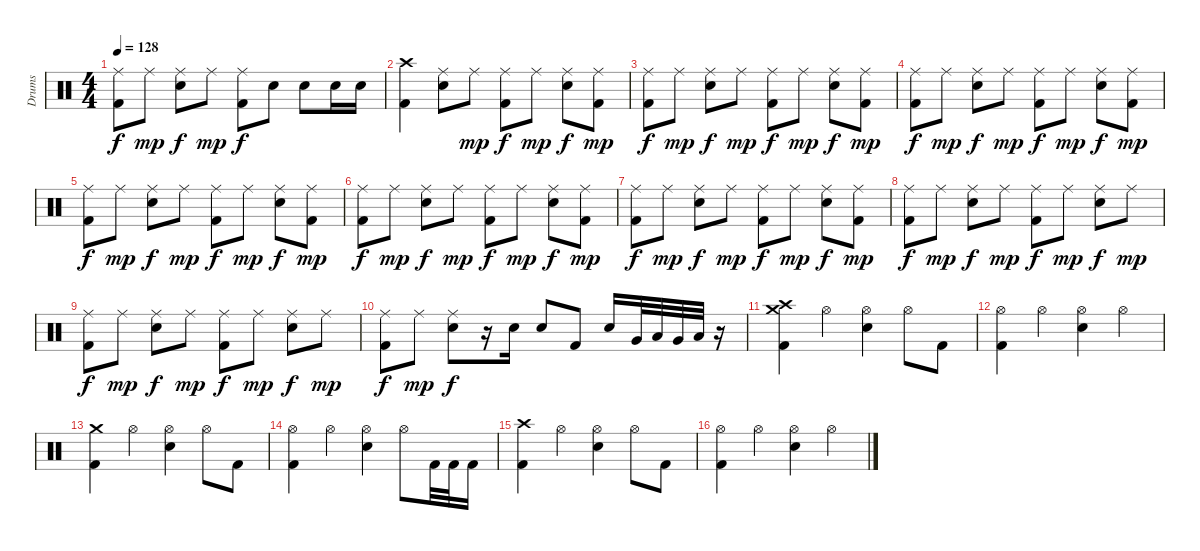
\track ("Drums" "Drums") {instrument percussion}
\staff {score}
\articulation defaults
\ts (4 4)
\tempo 128
\clef neutral
\ks c
("Ride (middle)" "Kick (hit) 2").8{dy f} "Ride (middle)".8{dy mp} ("Ride (middle)" "Snare (hit) 2").8{dy f} "Ride (middle)".8{dy mp} ("Ride (middle)" "Kick (hit) 2").8{dy f} "Snare (hit) 2".8 "Snare (hit) 2".8 "Snare (hit) 2".16 "Snare (hit) 2".16 |
("Crash high (hit)" "Kick (hit) 2").4 ("Ride (middle)" "Snare (hit) 2").8 "Ride (middle)".8{dy mp} ("Ride (middle)" "Kick (hit) 2").8{dy f} "Ride (middle)".8{dy mp} ("Ride (middle)" "Snare (hit) 2").8{dy f} ("Ride (middle)" "Kick (hit) 2").8{dy mp} |
("Ride (middle)" "Kick (hit) 2").8{dy f} "Ride (middle)".8{dy mp} ("Ride (middle)" "Snare (hit) 2").8{dy f} "Ride (middle)".8{dy mp} ("Ride (middle)" "Kick (hit) 2").8{dy f} "Ride (middle)".8{dy mp} ("Ride (middle)" "Snare (hit) 2").8{dy f} ("Ride (middle)" "Kick (hit) 2").8{dy mp} |
("Ride (middle)" "Kick (hit) 2").8{dy f} "Ride (middle)".8{dy mp} ("Ride (middle)" "Snare (hit) 2").8{dy f} "Ride (middle)".8{dy mp} ("Ride (middle)" "Kick (hit) 2").8{dy f} "Ride (middle)".8{dy mp} ("Ride (middle)" "Snare (hit) 2").8{dy f} ("Ride (middle)" "Kick (hit) 2").8{dy mp} |
("Ride (middle)" "Kick (hit) 2").8{dy f} "Ride (middle)".8{dy mp} ("Ride (middle)" "Snare (hit) 2").8{dy f} "Ride (middle)".8{dy mp} ("Ride (middle)" "Kick (hit) 2").8{dy f} "Ride (middle)".8{dy mp} ("Ride (middle)" "Snare (hit) 2").8{dy f} ("Ride (middle)" "Kick (hit) 2").8{dy mp} |
("Ride (middle)" "Kick (hit) 2").8{dy f} "Ride (middle)".8{dy mp} ("Ride (middle)" "Snare (hit) 2").8{dy f} "Ride (middle)".8{dy mp} ("Ride (middle)" "Kick (hit) 2").8{dy f} "Ride (middle)".8{dy mp} ("Ride (middle)" "Snare (hit) 2").8{dy f} ("Ride (middle)" "Kick (hit) 2").8{dy mp} |
("Ride (middle)" "Kick (hit) 2").8{dy f} "Ride (middle)".8{dy mp} ("Ride (middle)" "Snare (hit) 2").8{dy f} "Ride (middle)".8{dy mp} ("Ride (middle)" "Kick (hit) 2").8{dy f} "Ride (middle)".8{dy mp} ("Ride (middle)" "Snare (hit) 2").8{dy f} ("Ride (middle)" "Kick (hit) 2").8{dy mp} |
("Ride (middle)" "Kick (hit) 2").8{dy f} "Ride (middle)".8{dy mp} ("Ride (middle)" "Snare (hit) 2").8{dy f} "Ride (middle)".8{dy mp} ("Ride (middle)" "Kick (hit) 2").8{dy f} "Ride (middle)".8{dy mp} ("Ride (middle)" "Snare (hit) 2").8{dy f} "Ride (middle)".8{dy mp} |
("Ride (middle)" "Kick (hit) 2").8{dy f} "Ride (middle)".8{dy mp} ("Ride (middle)" "Snare (hit) 2").8{dy f} "Ride (middle)".8{dy mp} ("Ride (middle)" "Kick (hit) 2").8{dy f} "Ride (middle)".8{dy mp} ("Ride (middle)" "Snare (hit) 2").8{dy f} "Ride (middle)".8{dy mp} |
("Ride (middle)" "Kick (hit) 2").8{dy f} "Ride (middle)".8{dy mp} ("Ride (middle)" "Snare (hit) 2").8{dy f} r.16 "Snare (hit) 2".16 "Snare (hit) 2".8 "Kick (hit) 2".8 "Snare (hit) 2".16 "Very Low Tom (hit)".32 "Low Floor Tom (hit)".32 "Very Low Tom (hit)".32 "Low Floor Tom (hit)".32 r.16 |
("Crash high (hit)" "Crash medium (hit)" "Kick (hit) 2").4 "Hi-Hat (open)".4 ("Hi-Hat (open)" "Snare (hit) 2").4 "Hi-Hat (open)".8 "Kick (hit) 2".8 |
("Hi-Hat (open)" "Kick (hit) 2").4 "Hi-Hat (open)".4 ("Hi-Hat (open)" "Snare (hit) 2").4 "Hi-Hat (open)".4 |
("Crash medium (hit)" "Kick (hit) 2").4 "Hi-Hat (open)".4 ("Hi-Hat (open)" "Snare (hit) 2").4 "Hi-Hat (open)".8 "Kick (hit) 2".8 |
("Hi-Hat (open)" "Kick (hit) 2").4 "Hi-Hat (open)".4 ("Hi-Hat (open)" "Snare (hit) 2").4 "Hi-Hat (open)".8 "Kick (hit) 2".32 "Kick (hit) 2".32 "Kick (hit) 2".16 |
("Crash high (hit)" "Kick (hit) 2").4 "Hi-Hat (open)".4 ("Hi-Hat (open)" "Snare (hit) 2").4 "Hi-Hat (open)".8 "Kick (hit) 2".8 |
("Hi-Hat (open)" "Kick (hit) 2").4 "Hi-Hat (open)".4 ("Hi-Hat (open)" "Snare (hit) 2").4 "Hi-Hat (open)".4
